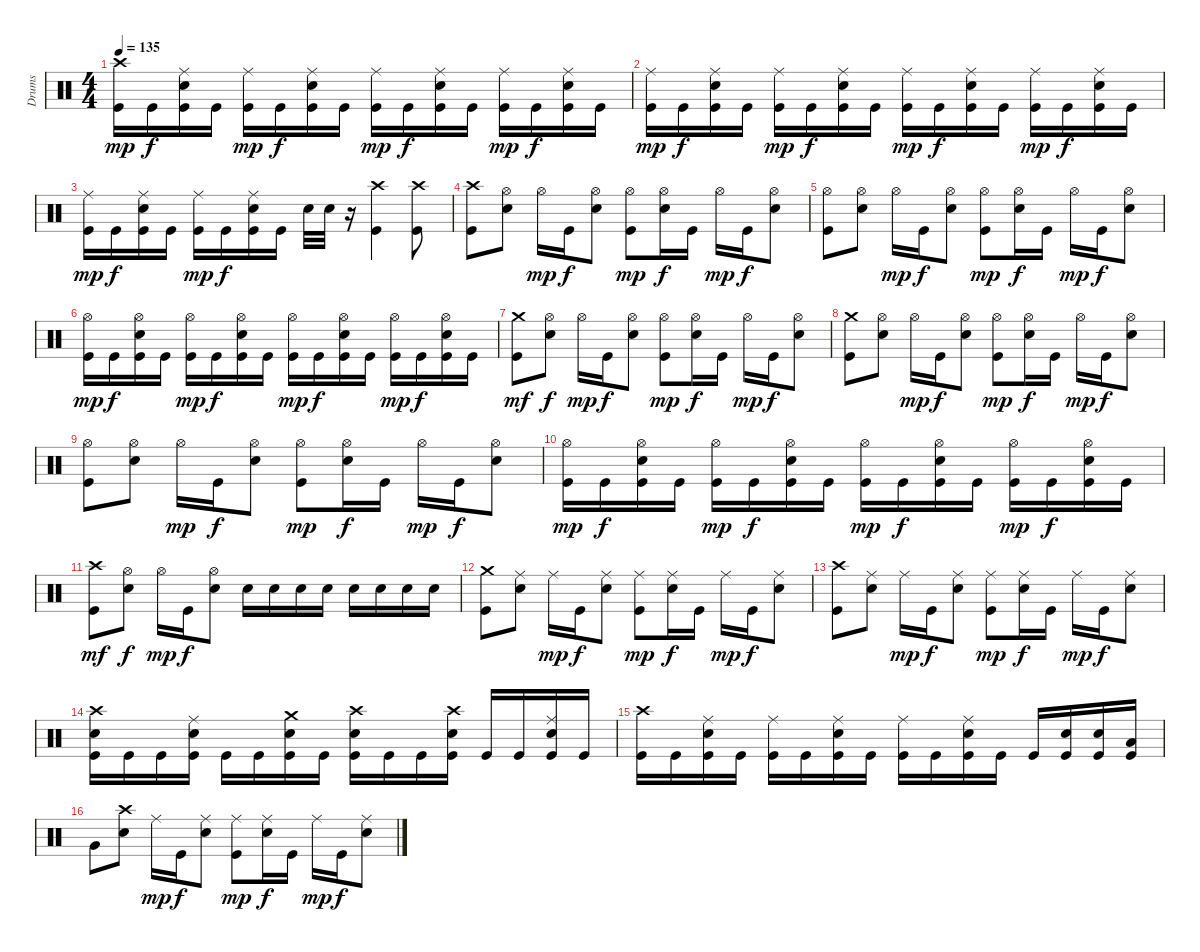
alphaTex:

\track ("Drums" "Drums") {instrument percussion}
\staff {score}
\articulation defaults
\ts (4 4)
\tempo 135
\clef neutral
\ks c
("Crash high (hit)" "Kick (hit)").16{dy mp} "Kick (hit)".16{dy f} ("Ride (middle)" "Snare (hit) 2" "Kick (hit)").16 "Kick (hit)".16 ("Ride (middle)" "Kick (hit)").16{dy mp} "Kick (hit)".16{dy f} ("Ride (middle)" "Snare (hit) 2" "Kick (hit)").16 "Kick (hit)".16 ("Ride (middle)" "Kick (hit)").16{dy mp} "Kick (hit)".16{dy f} ("Ride (middle)" "Snare (hit) 2" "Kick (hit)").16 "Kick (hit)".16 ("Ride (middle)" "Kick (hit)").16{dy mp} "Kick (hit)".16{dy f} ("Ride (middle)" "Snare (hit) 2" "Kick (hit)").16 "Kick (hit)".16 |
("Ride (middle)" "Kick (hit)").16{dy mp} "Kick (hit)".16{dy f} ("Ride (middle)" "Snare (hit) 2" "Kick (hit)").16 "Kick (hit)".16 ("Ride (middle)" "Kick (hit)").16{dy mp} "Kick (hit)".16{dy f} ("Ride (middle)" "Snare (hit) 2" "Kick (hit)").16 "Kick (hit)".16 ("Ride (middle)" "Kick (hit)").16{dy mp} "Kick (hit)".16{dy f} ("Ride (middle)" "Snare (hit) 2" "Kick (hit)").16 "Kick (hit)".16 ("Ride (middle)" "Kick (hit)").16{dy mp} "Kick (hit)".16{dy f} ("Ride (middle)" "Snare (hit) 2" "Kick (hit)").16 "Kick (hit)".16 |
("Ride (middle)" "Kick (hit)").16{dy mp} "Kick (hit)".16{dy f} ("Ride (middle)" "Snare (hit) 2" "Kick (hit)").16 "Kick (hit)".16 ("Ride (middle)" "Kick (hit)").16{dy mp} "Kick (hit)".16{dy f} ("Ride (middle)" "Snare (hit) 2" "Kick (hit)").16 "Kick (hit)".16 "Snare (hit) 2".32 "Snare (hit) 2".32 r.16 ("Crash high (hit)" "Kick (hit)").4 ("Crash high (hit)" "Kick (hit)").8 |
("Crash high (hit)" "Kick (hit)").8 ("Hi-Hat (open)" "Snare (hit) 2").8 "Hi-Hat (open)".16{dy mp} "Kick (hit)".16{dy f} ("Hi-Hat (open)" "Snare (hit) 2").8 ("Hi-Hat (open)" "Kick (hit)").8{dy mp} ("Hi-Hat (open)" "Snare (hit) 2").16{dy f} "Kick (hit)".16 "Hi-Hat (open)".16{dy mp} "Kick (hit)".16{dy f} ("Hi-Hat (open)" "Snare (hit) 2").8 |
("Hi-Hat (open)" "Kick (hit)").8 ("Hi-Hat (open)" "Snare (hit) 2").8 "Hi-Hat (open)".16{dy mp} "Kick (hit)".16{dy f} ("Hi-Hat (open)" "Snare (hit) 2").8 ("Hi-Hat (open)" "Kick (hit)").8{dy mp} ("Hi-Hat (open)" "Snare (hit) 2").16{dy f} "Kick (hit)".16 "Hi-Hat (open)".16{dy mp} "Kick (hit)".16{dy f} ("Hi-Hat (open)" "Snare (hit) 2").8 |
("Hi-Hat (open)" "Kick (hit)").16{dy mp} "Kick (hit)".16{dy f} ("Hi-Hat (open)" "Snare (hit) 2" "Kick (hit)").16 "Kick (hit)".16 ("Hi-Hat (open)" "Kick (hit)").16{dy mp} "Kick (hit)".16{dy f} ("Hi-Hat (open)" "Snare (hit) 2" "Kick (hit)").16 "Kick (hit)".16 ("Hi-Hat (open)" "Kick (hit)").16{dy mp} "Kick (hit)".16{dy f} ("Hi-Hat (open)" "Snare (hit) 2" "Kick (hit)").16 "Kick (hit)".16 ("Hi-Hat (open)" "Kick (hit)").16{dy mp} "Kick (hit)".16{dy f} ("Hi-Hat (open)" "Snare (hit) 2" "Kick (hit)").16 "Kick (hit)".16 |
("Crash medium (hit)" "Kick (hit)").8{dy mf} ("Hi-Hat (open)" "Snare (hit) 2").8{dy f} "Hi-Hat (open)".16{dy mp} "Kick (hit)".16{dy f} ("Hi-Hat (open)" "Snare (hit) 2").8 ("Hi-Hat (open)" "Kick (hit)").8{dy mp} ("Hi-Hat (open)" "Snare (hit) 2").16{dy f} "Kick (hit)".16 "Hi-Hat (open)".16{dy mp} "Kick (hit)".16{dy f} ("Hi-Hat (open)" "Snare (hit) 2").8 |
("Crash medium (hit)" "Kick (hit)").8 ("Hi-Hat (open)" "Snare (hit) 2").8 "Hi-Hat (open)".16{dy mp} "Kick (hit)".16{dy f} ("Hi-Hat (open)" "Snare (hit) 2").8 ("Hi-Hat (open)" "Kick (hit)").8{dy mp} ("Hi-Hat (open)" "Snare (hit) 2").16{dy f} "Kick (hit)".16 "Hi-Hat (open)".16{dy mp} "Kick (hit)".16{dy f} ("Hi-Hat (open)" "Snare (hit) 2").8 |
("Hi-Hat (open)" "Kick (hit)").8 ("Hi-Hat (open)" "Snare (hit) 2").8 "Hi-Hat (open)".16{dy mp} "Kick (hit)".16{dy f} ("Hi-Hat (open)" "Snare (hit) 2").8 ("Hi-Hat (open)" "Kick (hit)").8{dy mp} ("Hi-Hat (open)" "Snare (hit) 2").16{dy f} "Kick (hit)".16 "Hi-Hat (open)".16{dy mp} "Kick (hit)".16{dy f} ("Hi-Hat (open)" "Snare (hit) 2").8 |
("Hi-Hat (open)" "Kick (hit)").16{dy mp} "Kick (hit)".16{dy f} ("Hi-Hat (open)" "Snare (hit) 2" "Kick (hit)").16 "Kick (hit)".16 ("Hi-Hat (open)" "Kick (hit)").16{dy mp} "Kick (hit)".16{dy f} ("Hi-Hat (open)" "Snare (hit) 2" "Kick (hit)").16 "Kick (hit)".16 ("Hi-Hat (open)" "Kick (hit)").16{dy mp} "Kick (hit)".16{dy f} ("Hi-Hat (open)" "Snare (hit) 2" "Kick (hit)").16 "Kick (hit)".16 ("Hi-Hat (open)" "Kick (hit)").16{dy mp} "Kick (hit)".16{dy f} ("Hi-Hat (open)" "Snare (hit) 2" "Kick (hit)").16 "Kick (hit)".16 |
("Crash high (hit)" "Kick (hit)").8{dy mf} ("Hi-Hat (open)" "Snare (hit) 2").8{dy f} "Hi-Hat (open)".16{dy mp} "Kick (hit)".16{dy f} ("Hi-Hat (open)" "Snare (hit) 2").8 "Snare (hit) 2".16 "Snare (hit) 2".16 "Snare (hit) 2".16 "Snare (hit) 2".16 "Snare (hit) 2".16 "Snare (hit) 2".16 "Snare (hit) 2".16 "Snare (hit) 2".16 |
("Crash medium (hit)" "Kick (hit)").8 ("Ride (middle)" "Snare (hit) 2").8 "Ride (middle)".16{dy mp} "Kick (hit)".16{dy f} ("Ride (middle)" "Snare (hit) 2").8 ("Ride (middle)" "Kick (hit)").8{dy mp} ("Ride (middle)" "Snare (hit) 2").16{dy f} "Kick (hit)".16 "Ride (middle)".16{dy mp} "Kick (hit)".16{dy f} ("Ride (middle)" "Snare (hit) 2").8 |
("Crash high (hit)" "Kick (hit)").8 ("Ride (middle)" "Snare (hit) 2").8 "Ride (middle)".16{dy mp} "Kick (hit)".16{dy f} ("Ride (middle)" "Snare (hit) 2").8 ("Ride (middle)" "Kick (hit)").8{dy mp} ("Ride (middle)" "Snare (hit) 2").16{dy f} "Kick (hit)".16 "Ride (middle)".16{dy mp} "Kick (hit)".16{dy f} ("Ride (middle)" "Snare (hit) 2").8 |
("Crash high (hit)" "Snare (hit) 2" "Kick (hit)").16 "Kick (hit)".16 "Kick (hit)".16 ("Ride (middle)" "Snare (hit) 2" "Kick (hit)").16 "Kick (hit)".16 "Kick (hit)".16 ("Crash medium (hit)" "Snare (hit) 2" "Kick (hit)").16 "Kick (hit)".16 ("Crash high (hit)" "Snare (hit) 2" "Kick (hit)").16 "Kick (hit)".16 "Kick (hit)".16 ("Crash high (hit)" "Snare (hit) 2" "Kick (hit)").16 "Kick (hit)".16 "Kick (hit)".16 ("Ride (middle)" "Snare (hit) 2" "Kick (hit)").16 "Kick (hit)".16 |
("Crash high (hit)" "Kick (hit)").16 "Kick (hit)".16 ("Ride (middle)" "Snare (hit) 2" "Kick (hit)").16 "Kick (hit)".16 ("Ride (middle)" "Kick (hit)").16 "Kick (hit)".16 ("Ride (middle)" "Snare (hit) 2" "Kick (hit)").16 "Kick (hit)".16 ("Ride (middle)" "Kick (hit)").16 "Kick (hit)".16 ("Ride (middle)" "Snare (hit) 2" "Kick (hit)").16 "Kick (hit)".16 "Kick (hit)".16 ("Snare (hit) 2" "Kick (hit)").16 ("Snare (hit) 2" "Kick (hit)").16 ("Low Tom (hit)" "Kick (hit)").16 |
"Very Low Tom (hit)".8 ("Crash high (hit)" "Snare (hit) 2").8 "Ride (middle)".16{dy mp} "Kick (hit)".16{dy f} ("Ride (middle)" "Snare (hit) 2").8 ("Ride (middle)" "Kick (hit)").8{dy mp} ("Ride (middle)" "Snare (hit) 2").16{dy f} "Kick (hit)".16 "Ride (middle)".16{dy mp} "Kick (hit)".16{dy f} ("Ride (middle)" "Snare (hit) 2").8
